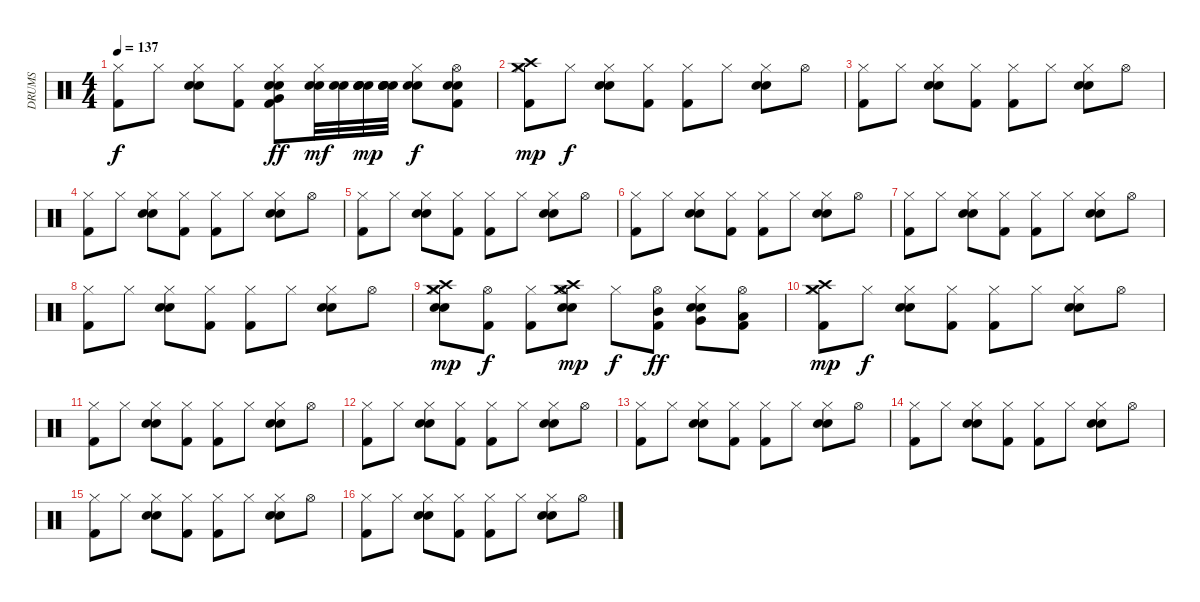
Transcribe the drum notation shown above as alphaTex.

\track ("DRUMS" "DRUMS") {instrument percussion}
\staff {score}
\articulation defaults
\ts (4 4)
\tempo 137
\clef neutral
\ks c
("Hi-Hat (closed)" "Kick (hit) 2").8{dy f} "Hi-Hat (closed)".8 ("Snare (hit) 2" "Electric Snare (hit)" "Hi-Hat (closed)").8 ("Hi-Hat (closed)" "Kick (hit) 2").8 ("Snare (hit) 2" "Very Low Tom (hit)" "Electric Snare (hit)" "Hi-Hat (closed)" "Kick (hit) 2").8{dy ff} ("Electric Snare (hit)" "Hi-Hat (closed)" "Snare (hit) 2").32{dy mf} ("Electric Snare (hit)" "Snare (hit) 2").32 ("Electric Snare (hit)" "Snare (hit) 2" "Electric Snare (hit)" "Snare (hit) 2").32{dy mp} ("Electric Snare (hit)" "Snare (hit) 2" "Electric Snare (hit)" "Snare (hit) 2").32 ("Snare (hit) 2" "Electric Snare (hit)" "Hi-Hat (closed)").8{dy f} ("Snare (hit) 2" "Electric Snare (hit)" "Hi-Hat (open)" "Kick (hit) 2").8 |
("Hi-Hat (closed)" "Crash high (hit)" "Crash medium (hit)" "Kick (hit) 2").8{dy mp} "Hi-Hat (closed)".8{dy f} ("Hi-Hat (closed)" "Electric Snare (hit)" "Snare (hit) 2").8 ("Hi-Hat (closed)" "Kick (hit) 2").8 ("Hi-Hat (closed)" "Kick (hit) 2").8 "Hi-Hat (closed)".8 ("Hi-Hat (closed)" "Electric Snare (hit)" "Snare (hit) 2").8 "Hi-Hat (open)".8 |
("Hi-Hat (closed)" "Kick (hit) 2").8 "Hi-Hat (closed)".8 ("Hi-Hat (closed)" "Electric Snare (hit)" "Snare (hit) 2").8 ("Hi-Hat (closed)" "Kick (hit) 2").8 ("Hi-Hat (closed)" "Kick (hit) 2").8 "Hi-Hat (closed)".8 ("Hi-Hat (closed)" "Electric Snare (hit)" "Snare (hit) 2").8 "Hi-Hat (open)".8 |
("Hi-Hat (closed)" "Kick (hit) 2").8 "Hi-Hat (closed)".8 ("Hi-Hat (closed)" "Electric Snare (hit)" "Snare (hit) 2").8 ("Hi-Hat (closed)" "Kick (hit) 2").8 ("Hi-Hat (closed)" "Kick (hit) 2").8 "Hi-Hat (closed)".8 ("Hi-Hat (closed)" "Electric Snare (hit)" "Snare (hit) 2").8 "Hi-Hat (open)".8 |
("Hi-Hat (closed)" "Kick (hit) 2").8 "Hi-Hat (closed)".8 ("Hi-Hat (closed)" "Electric Snare (hit)" "Snare (hit) 2").8 ("Hi-Hat (closed)" "Kick (hit) 2").8 ("Hi-Hat (closed)" "Kick (hit) 2").8 "Hi-Hat (closed)".8 ("Hi-Hat (closed)" "Electric Snare (hit)" "Snare (hit) 2").8 "Hi-Hat (open)".8 |
("Hi-Hat (closed)" "Kick (hit) 2").8 "Hi-Hat (closed)".8 ("Hi-Hat (closed)" "Electric Snare (hit)" "Snare (hit) 2").8 ("Hi-Hat (closed)" "Kick (hit) 2").8 ("Hi-Hat (closed)" "Kick (hit) 2").8 "Hi-Hat (closed)".8 ("Hi-Hat (closed)" "Electric Snare (hit)" "Snare (hit) 2").8 "Hi-Hat (open)".8 |
("Hi-Hat (closed)" "Kick (hit) 2").8 "Hi-Hat (closed)".8 ("Hi-Hat (closed)" "Electric Snare (hit)" "Snare (hit) 2").8 ("Hi-Hat (closed)" "Kick (hit) 2").8 ("Hi-Hat (closed)" "Kick (hit) 2").8 "Hi-Hat (closed)".8 ("Hi-Hat (closed)" "Electric Snare (hit)" "Snare (hit) 2").8 "Hi-Hat (open)".8 |
("Hi-Hat (closed)" "Kick (hit) 2").8 "Hi-Hat (closed)".8 ("Hi-Hat (closed)" "Electric Snare (hit)" "Snare (hit) 2").8 ("Hi-Hat (closed)" "Kick (hit) 2").8 ("Hi-Hat (closed)" "Kick (hit) 2").8 "Hi-Hat (closed)".8 ("Hi-Hat (closed)" "Electric Snare (hit)" "Snare (hit) 2").8 "Hi-Hat (open)".8 |
("Snare (hit) 2" "Electric Snare (hit)" "Crash high (hit)" "Crash medium (hit)" "Hi-Hat (closed)").8{dy mp} ("Hi-Hat (open)" "Kick (hit) 2").8{dy f} ("Hi-Hat (closed)" "Kick (hit) 2").8 ("Crash high (hit)" "Crash medium (hit)" "Hi-Hat (open)" "Snare (hit) 2" "Electric Snare (hit)").8{dy mp} "Hi-Hat (closed)".8{dy f} ("Mid Tom (hit)" "Hi-Hat (open)" "Kick (hit) 2").8{dy ff} ("Very Low Tom (hit)" "Snare (hit) 2" "Electric Snare (hit)" "Hi-Hat (closed)").8 ("Low Floor Tom (hit)" "Hi-Hat (open)" "Kick (hit) 2").8 |
("Hi-Hat (closed)" "Crash high (hit)" "Crash medium (hit)" "Kick (hit) 2").8{dy mp} "Hi-Hat (closed)".8{dy f} ("Hi-Hat (closed)" "Electric Snare (hit)" "Snare (hit) 2").8 ("Hi-Hat (closed)" "Kick (hit) 2").8 ("Hi-Hat (closed)" "Kick (hit) 2").8 "Hi-Hat (closed)".8 ("Hi-Hat (closed)" "Electric Snare (hit)" "Snare (hit) 2").8 "Hi-Hat (open)".8 |
("Hi-Hat (closed)" "Kick (hit) 2").8 "Hi-Hat (closed)".8 ("Hi-Hat (closed)" "Electric Snare (hit)" "Snare (hit) 2").8 ("Hi-Hat (closed)" "Kick (hit) 2").8 ("Hi-Hat (closed)" "Kick (hit) 2").8 "Hi-Hat (closed)".8 ("Hi-Hat (closed)" "Electric Snare (hit)" "Snare (hit) 2").8 "Hi-Hat (open)".8 |
("Hi-Hat (closed)" "Kick (hit) 2").8 "Hi-Hat (closed)".8 ("Hi-Hat (closed)" "Electric Snare (hit)" "Snare (hit) 2").8 ("Hi-Hat (closed)" "Kick (hit) 2").8 ("Hi-Hat (closed)" "Kick (hit) 2").8 "Hi-Hat (closed)".8 ("Hi-Hat (closed)" "Electric Snare (hit)" "Snare (hit) 2").8 "Hi-Hat (open)".8 |
("Hi-Hat (closed)" "Kick (hit) 2").8 "Hi-Hat (closed)".8 ("Hi-Hat (closed)" "Electric Snare (hit)" "Snare (hit) 2").8 ("Hi-Hat (closed)" "Kick (hit) 2").8 ("Hi-Hat (closed)" "Kick (hit) 2").8 "Hi-Hat (closed)".8 ("Hi-Hat (closed)" "Electric Snare (hit)" "Snare (hit) 2").8 "Hi-Hat (open)".8 |
("Hi-Hat (closed)" "Kick (hit) 2").8 "Hi-Hat (closed)".8 ("Hi-Hat (closed)" "Electric Snare (hit)" "Snare (hit) 2").8 ("Hi-Hat (closed)" "Kick (hit) 2").8 ("Hi-Hat (closed)" "Kick (hit) 2").8 "Hi-Hat (closed)".8 ("Hi-Hat (closed)" "Electric Snare (hit)" "Snare (hit) 2").8 "Hi-Hat (open)".8 |
("Hi-Hat (closed)" "Kick (hit) 2").8 "Hi-Hat (closed)".8 ("Hi-Hat (closed)" "Electric Snare (hit)" "Snare (hit) 2").8 ("Hi-Hat (closed)" "Kick (hit) 2").8 ("Hi-Hat (closed)" "Kick (hit) 2").8 "Hi-Hat (closed)".8 ("Hi-Hat (closed)" "Electric Snare (hit)" "Snare (hit) 2").8 "Hi-Hat (open)".8 |
("Hi-Hat (closed)" "Kick (hit) 2").8 "Hi-Hat (closed)".8 ("Hi-Hat (closed)" "Electric Snare (hit)" "Snare (hit) 2").8 ("Hi-Hat (closed)" "Kick (hit) 2").8 ("Hi-Hat (closed)" "Kick (hit) 2").8 "Hi-Hat (closed)".8 ("Hi-Hat (closed)" "Electric Snare (hit)" "Snare (hit) 2").8 "Hi-Hat (open)".8
